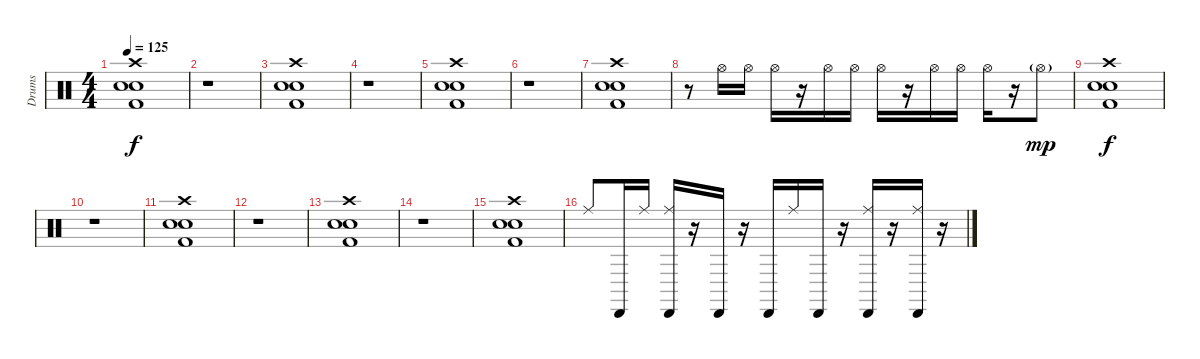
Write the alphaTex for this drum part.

\track ("Drums" "Drums") {instrument percussion}
\staff {score}
\articulation defaults
\ts (4 4)
\tempo 125
\clef neutral
\ks c
("Crash high (hit)" "Snare (hit) 2" "Kick (hit) 2" "Electric Snare (hit)").1{dy f} |
r.1 |
("Crash high (hit)" "Snare (hit) 2" "Kick (hit) 2" "Electric Snare (hit)").1 |
r.1 |
("Crash high (hit)" "Snare (hit) 2" "Kick (hit) 2" "Electric Snare (hit)").1 |
r.1 |
("Crash high (hit)" "Snare (hit) 2" "Kick (hit) 2" "Electric Snare (hit)").1 |
r.8 "Hi-Hat (open)".16 "Hi-Hat (open)".16 "Hi-Hat (open)".16 r.16 "Hi-Hat (open)".16 "Hi-Hat (open)".16 "Hi-Hat (open)".16 r.16 "Hi-Hat (open)".16 "Hi-Hat (open)".16 "Hi-Hat (open)".16 r.16 "Hi-Hat (open)"{g}.8{dy mp} |
("Crash high (hit)" "Snare (hit) 2" "Kick (hit) 2" "Electric Snare (hit)").1{dy f} |
r.1 |
("Crash high (hit)" "Snare (hit) 2" "Kick (hit) 2" "Electric Snare (hit)").1 |
r.1 |
("Crash high (hit)" "Snare (hit) 2" "Kick (hit) 2" "Electric Snare (hit)").1 |
r.1 |
("Crash high (hit)" "Snare (hit) 2" "Kick (hit) 2" "Electric Snare (hit)").1 |
"Ride (middle)".8 "Cabasa (hit)".16 "Ride (middle)".16 ("Cabasa (hit)" "Ride (middle)").16 r.16 "Cabasa (hit)".16 r.16 "Cabasa (hit)".16 "Ride (middle)".16 "Cabasa (hit)".16 r.16 ("Cabasa (hit)" "Ride (middle)").16 r.16 ("Cabasa (hit)" "Ride (middle)").16 r.16
